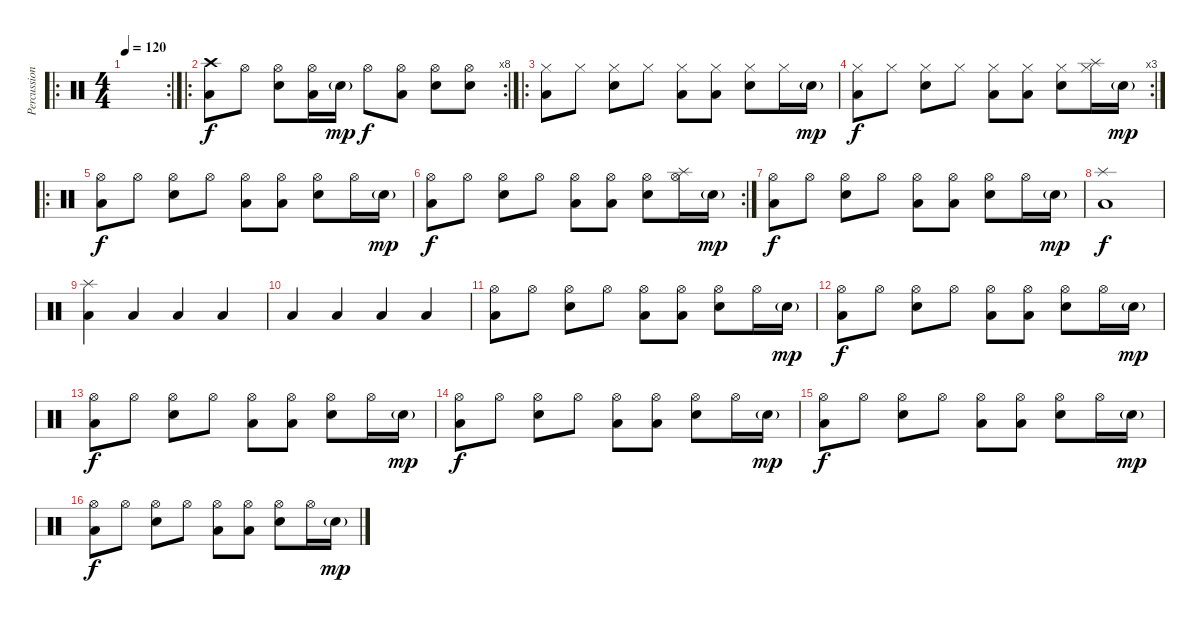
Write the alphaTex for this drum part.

\track ("Percussions" "Percussion") {instrument percussion}
\staff {score}
\articulation defaults
\ro
\rc 2
\ts (4 4)
\tempo 120
\clef neutral
\ks c
|
\ro
\rc 8
("Crash high (hit)" "Low Tom (hit)").8 "Hi-Hat (open)".8 ("Hi-Hat (open)" "Electric Snare (hit)").8 ("Hi-Hat (open)" "Low Tom (hit)").16 "Electric Snare (hit)"{g}.16{dy mp} "Hi-Hat (open)".8{dy f} ("Hi-Hat (open)" "Low Tom (hit)").8 ("Hi-Hat (open)" "Electric Snare (hit)").8 ("Hi-Hat (open)" "Electric Snare (hit)").8 |
\ro
("Hi-Hat (closed)" "Low Tom (hit)").8 "Hi-Hat (closed)".8 ("Hi-Hat (closed)" "Electric Snare (hit)").8 "Hi-Hat (closed)".8 ("Hi-Hat (closed)" "Low Tom (hit)").8 ("Hi-Hat (closed)" "Low Tom (hit)").8 ("Hi-Hat (closed)" "Electric Snare (hit)").8 "Hi-Hat (closed)".16 "Electric Snare (hit)"{g}.16{dy mp} |
\rc 3
("Hi-Hat (closed)" "Low Tom (hit)").8{dy f} "Hi-Hat (closed)".8 ("Hi-Hat (closed)" "Electric Snare (hit)").8 "Hi-Hat (closed)".8 ("Hi-Hat (closed)" "Low Tom (hit)").8 ("Hi-Hat (closed)" "Low Tom (hit)").8 ("Hi-Hat (closed)" "Electric Snare (hit)").8 ("Splash (hit)" "Hi-Hat (closed)").16 "Electric Snare (hit)"{g}.16{dy mp} |
\ro
("Hi-Hat (open)" "Low Tom (hit)").8{dy f} "Hi-Hat (open)".8 ("Hi-Hat (open)" "Electric Snare (hit)").8 "Hi-Hat (open)".8 ("Hi-Hat (open)" "Low Tom (hit)").8 ("Hi-Hat (open)" "Low Tom (hit)").8 ("Hi-Hat (open)" "Electric Snare (hit)").8 "Hi-Hat (open)".16 "Electric Snare (hit)"{g}.16{dy mp} |
\rc 2
("Hi-Hat (open)" "Low Tom (hit)").8{dy f} "Hi-Hat (open)".8 ("Hi-Hat (open)" "Electric Snare (hit)").8 "Hi-Hat (open)".8 ("Hi-Hat (open)" "Low Tom (hit)").8 ("Hi-Hat (open)" "Low Tom (hit)").8 ("Hi-Hat (open)" "Electric Snare (hit)").8 ("Splash (hit)" "Hi-Hat (open)").16 "Electric Snare (hit)"{g}.16{dy mp} |
("Hi-Hat (open)" "Low Tom (hit)").8{dy f} "Hi-Hat (open)".8 ("Hi-Hat (open)" "Electric Snare (hit)").8 "Hi-Hat (open)".8 ("Hi-Hat (open)" "Low Tom (hit)").8 ("Hi-Hat (open)" "Low Tom (hit)").8 ("Hi-Hat (open)" "Electric Snare (hit)").8 "Hi-Hat (open)".16 "Electric Snare (hit)"{g}.16{dy mp} |
("Splash (hit)" "Low Tom (hit)").1{dy f} |
("Splash (hit)" "Low Tom (hit)").4 "Low Tom (hit)".4 "Low Tom (hit)".4 "Low Tom (hit)".4 |
"Low Tom (hit)".4 "Low Tom (hit)".4 "Low Tom (hit)".4 "Low Tom (hit)".4 |
("Hi-Hat (open)" "Low Tom (hit)").8 "Hi-Hat (open)".8 ("Hi-Hat (open)" "Electric Snare (hit)").8 "Hi-Hat (open)".8 ("Hi-Hat (open)" "Low Tom (hit)").8 ("Hi-Hat (open)" "Low Tom (hit)").8 ("Hi-Hat (open)" "Electric Snare (hit)").8 "Hi-Hat (open)".16 "Electric Snare (hit)"{g}.16{dy mp} |
("Hi-Hat (open)" "Low Tom (hit)").8{dy f} "Hi-Hat (open)".8 ("Hi-Hat (open)" "Electric Snare (hit)").8 "Hi-Hat (open)".8 ("Hi-Hat (open)" "Low Tom (hit)").8 ("Hi-Hat (open)" "Low Tom (hit)").8 ("Hi-Hat (open)" "Electric Snare (hit)").8 "Hi-Hat (open)".16 "Electric Snare (hit)"{g}.16{dy mp} |
("Hi-Hat (open)" "Low Tom (hit)").8{dy f} "Hi-Hat (open)".8 ("Hi-Hat (open)" "Electric Snare (hit)").8 "Hi-Hat (open)".8 ("Hi-Hat (open)" "Low Tom (hit)").8 ("Hi-Hat (open)" "Low Tom (hit)").8 ("Hi-Hat (open)" "Electric Snare (hit)").8 "Hi-Hat (open)".16 "Electric Snare (hit)"{g}.16{dy mp} |
("Hi-Hat (open)" "Low Tom (hit)").8{dy f} "Hi-Hat (open)".8 ("Hi-Hat (open)" "Electric Snare (hit)").8 "Hi-Hat (open)".8 ("Hi-Hat (open)" "Low Tom (hit)").8 ("Hi-Hat (open)" "Low Tom (hit)").8 ("Hi-Hat (open)" "Electric Snare (hit)").8 "Hi-Hat (open)".16 "Electric Snare (hit)"{g}.16{dy mp} |
("Hi-Hat (open)" "Low Tom (hit)").8{dy f} "Hi-Hat (open)".8 ("Hi-Hat (open)" "Electric Snare (hit)").8 "Hi-Hat (open)".8 ("Hi-Hat (open)" "Low Tom (hit)").8 ("Hi-Hat (open)" "Low Tom (hit)").8 ("Hi-Hat (open)" "Electric Snare (hit)").8 "Hi-Hat (open)".16 "Electric Snare (hit)"{g}.16{dy mp} |
("Hi-Hat (open)" "Low Tom (hit)").8{dy f} "Hi-Hat (open)".8 ("Hi-Hat (open)" "Electric Snare (hit)").8 "Hi-Hat (open)".8 ("Hi-Hat (open)" "Low Tom (hit)").8 ("Hi-Hat (open)" "Low Tom (hit)").8 ("Hi-Hat (open)" "Electric Snare (hit)").8 "Hi-Hat (open)".16 "Electric Snare (hit)"{g}.16{dy mp}
